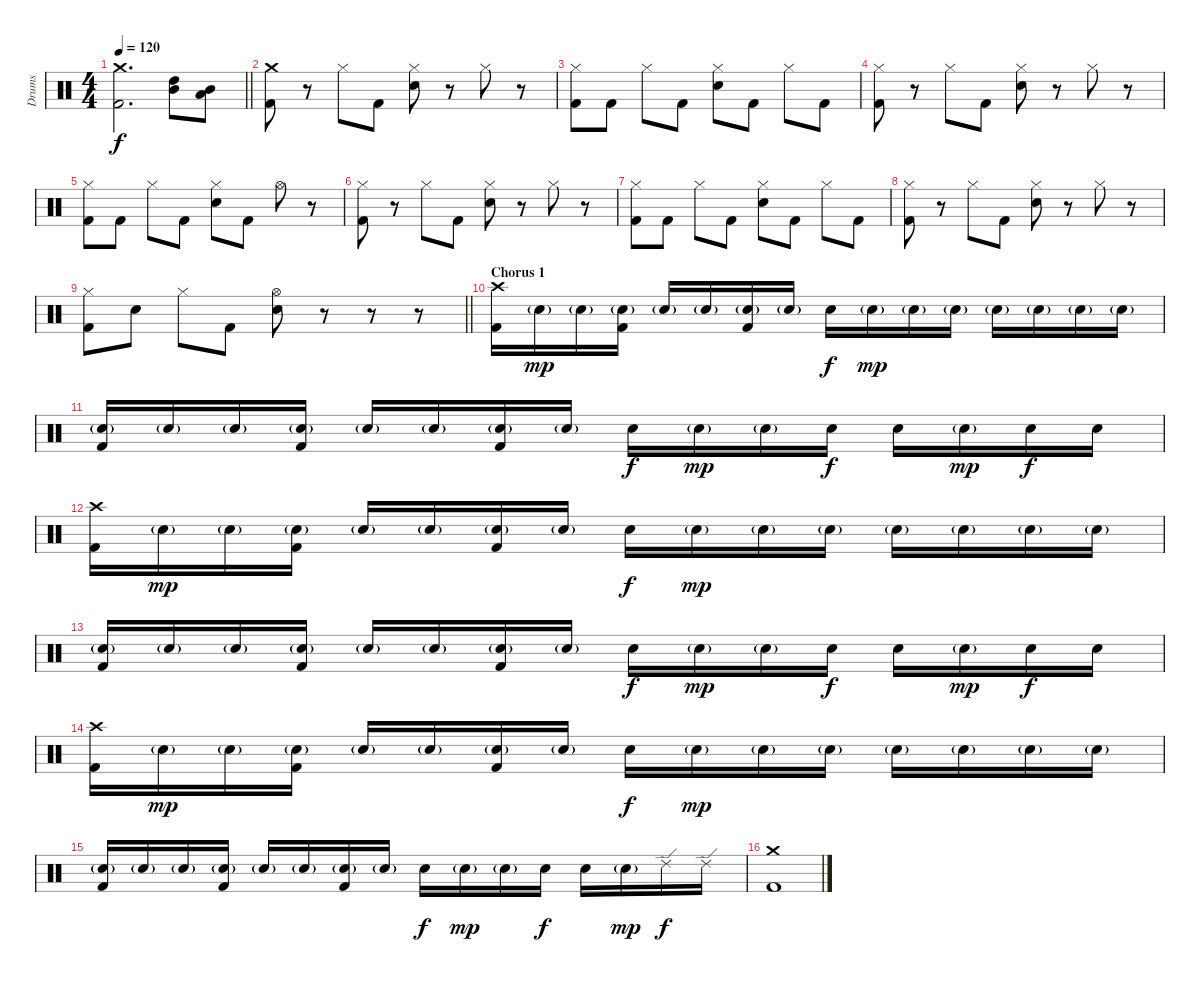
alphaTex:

\track ("Drums" "Drums") {instrument percussion}
\staff {score}
\articulation defaults
\ts (4 4)
\tempo 120
\clef neutral
\barLineRight lightlight
\ks c
("Crash medium (hit)" "Kick (hit) 2").2{d dy f} ("High Tom (hit)" "Mid Tom (hit)").8 ("Mid Tom (hit)" "Low Tom (hit)").8 |
\section ("" "")
("Crash medium (hit)" "Kick (hit) 2").8 r.8 "Hi-Hat (closed)".8 "Kick (hit) 2".8 ("Hi-Hat (closed)" "Electric Snare (hit)").8 r.8 "Hi-Hat (closed)".8 r.8 |
("Hi-Hat (closed)" "Kick (hit) 2").8 "Kick (hit) 2".8 "Hi-Hat (closed)".8 "Kick (hit) 2".8 ("Hi-Hat (closed)" "Electric Snare (hit)").8 "Kick (hit) 2".8 "Hi-Hat (closed)".8 "Kick (hit) 2".8 |
("Hi-Hat (closed)" "Kick (hit) 2").8 r.8 "Hi-Hat (closed)".8 "Kick (hit) 2".8 ("Hi-Hat (closed)" "Electric Snare (hit)").8 r.8 "Hi-Hat (closed)".8 r.8 |
("Hi-Hat (closed)" "Kick (hit) 2").8 "Kick (hit) 2".8 "Hi-Hat (closed)".8 "Kick (hit) 2".8 ("Hi-Hat (closed)" "Electric Snare (hit)").8 "Kick (hit) 2".8 "Hi-Hat (open)".8 r.8 |
("Hi-Hat (closed)" "Kick (hit) 2").8 r.8 "Hi-Hat (closed)".8 "Kick (hit) 2".8 ("Hi-Hat (closed)" "Electric Snare (hit)").8 r.8 "Hi-Hat (closed)".8 r.8 |
("Hi-Hat (closed)" "Kick (hit) 2").8 "Kick (hit) 2".8 "Hi-Hat (closed)".8 "Kick (hit) 2".8 ("Hi-Hat (closed)" "Electric Snare (hit)").8 "Kick (hit) 2".8 "Hi-Hat (closed)".8 "Kick (hit) 2".8 |
("Hi-Hat (closed)" "Kick (hit) 2").8 r.8 "Hi-Hat (closed)".8 "Kick (hit) 2".8 ("Hi-Hat (closed)" "Electric Snare (hit)").8 r.8 "Hi-Hat (closed)".8 r.8 |
\barLineRight lightlight
("Hi-Hat (closed)" "Kick (hit) 2").8 "Electric Snare (hit)".8 "Hi-Hat (closed)".8 "Kick (hit) 2".8 ("Hi-Hat (open)" "Electric Snare (hit)").8 r.8 r.8 r.8 |
\section ("" "Chorus 1")
("Crash high (hit)" "Kick (hit) 2").16 "Electric Snare (hit)"{g}.16{dy mp} "Electric Snare (hit)"{g}.16 ("Electric Snare (hit)"{g} "Kick (hit) 2").16 "Electric Snare (hit)"{g}.16 "Electric Snare (hit)"{g}.16 ("Electric Snare (hit)"{g} "Kick (hit) 2").16 "Electric Snare (hit)"{g}.16 "Electric Snare (hit)".16{dy f} "Electric Snare (hit)"{g}.16{dy mp} "Electric Snare (hit)"{g}.16 "Electric Snare (hit)"{g}.16 "Electric Snare (hit)"{g}.16 "Electric Snare (hit)"{g}.16 "Electric Snare (hit)"{g}.16 "Electric Snare (hit)"{g}.16 |
("Electric Snare (hit)"{g} "Kick (hit) 2").16 "Electric Snare (hit)"{g}.16 "Electric Snare (hit)"{g}.16 ("Electric Snare (hit)"{g} "Kick (hit) 2").16 "Electric Snare (hit)"{g}.16 "Electric Snare (hit)"{g}.16 ("Electric Snare (hit)"{g} "Kick (hit) 2").16 "Electric Snare (hit)"{g}.16 "Electric Snare (hit)".16{dy f} "Electric Snare (hit)"{g}.16{dy mp} "Electric Snare (hit)"{g}.16 "Electric Snare (hit)".16{dy f} "Electric Snare (hit)".16 "Electric Snare (hit)"{g}.16{dy mp} "Electric Snare (hit)".16{dy f} "Electric Snare (hit)".16 |
("Crash high (hit)" "Kick (hit) 2").16 "Electric Snare (hit)"{g}.16{dy mp} "Electric Snare (hit)"{g}.16 ("Electric Snare (hit)"{g} "Kick (hit) 2").16 "Electric Snare (hit)"{g}.16 "Electric Snare (hit)"{g}.16 ("Electric Snare (hit)"{g} "Kick (hit) 2").16 "Electric Snare (hit)"{g}.16 "Electric Snare (hit)".16{dy f} "Electric Snare (hit)"{g}.16{dy mp} "Electric Snare (hit)"{g}.16 "Electric Snare (hit)"{g}.16 "Electric Snare (hit)"{g}.16 "Electric Snare (hit)"{g}.16 "Electric Snare (hit)"{g}.16 "Electric Snare (hit)"{g}.16 |
("Electric Snare (hit)"{g} "Kick (hit) 2").16 "Electric Snare (hit)"{g}.16 "Electric Snare (hit)"{g}.16 ("Electric Snare (hit)"{g} "Kick (hit) 2").16 "Electric Snare (hit)"{g}.16 "Electric Snare (hit)"{g}.16 ("Electric Snare (hit)"{g} "Kick (hit) 2").16 "Electric Snare (hit)"{g}.16 "Electric Snare (hit)".16{dy f} "Electric Snare (hit)"{g}.16{dy mp} "Electric Snare (hit)"{g}.16 "Electric Snare (hit)".16{dy f} "Electric Snare (hit)".16 "Electric Snare (hit)"{g}.16{dy mp} "Electric Snare (hit)".16{dy f} "Electric Snare (hit)".16 |
("Crash high (hit)" "Kick (hit) 2").16 "Electric Snare (hit)"{g}.16{dy mp} "Electric Snare (hit)"{g}.16 ("Electric Snare (hit)"{g} "Kick (hit) 2").16 "Electric Snare (hit)"{g}.16 "Electric Snare (hit)"{g}.16 ("Electric Snare (hit)"{g} "Kick (hit) 2").16 "Electric Snare (hit)"{g}.16 "Electric Snare (hit)".16{dy f} "Electric Snare (hit)"{g}.16{dy mp} "Electric Snare (hit)"{g}.16 "Electric Snare (hit)"{g}.16 "Electric Snare (hit)"{g}.16 "Electric Snare (hit)"{g}.16 "Electric Snare (hit)"{g}.16 "Electric Snare (hit)"{g}.16 |
("Electric Snare (hit)"{g} "Kick (hit) 2").16 "Electric Snare (hit)"{g}.16 "Electric Snare (hit)"{g}.16 ("Electric Snare (hit)"{g} "Kick (hit) 2").16 "Electric Snare (hit)"{g}.16 "Electric Snare (hit)"{g}.16 ("Electric Snare (hit)"{g} "Kick (hit) 2").16 "Electric Snare (hit)"{g}.16 "Electric Snare (hit)".16{dy f} "Electric Snare (hit)"{g}.16{dy mp} "Electric Snare (hit)"{g}.16 "Electric Snare (hit)".16{dy f} "Electric Snare (hit)".16 "Electric Snare (hit)"{g}.16{dy mp} "Ride (edge) 2".16{dy f} "Ride (edge) 2".16 |
("Crash medium (hit)" "Kick (hit) 2").1
